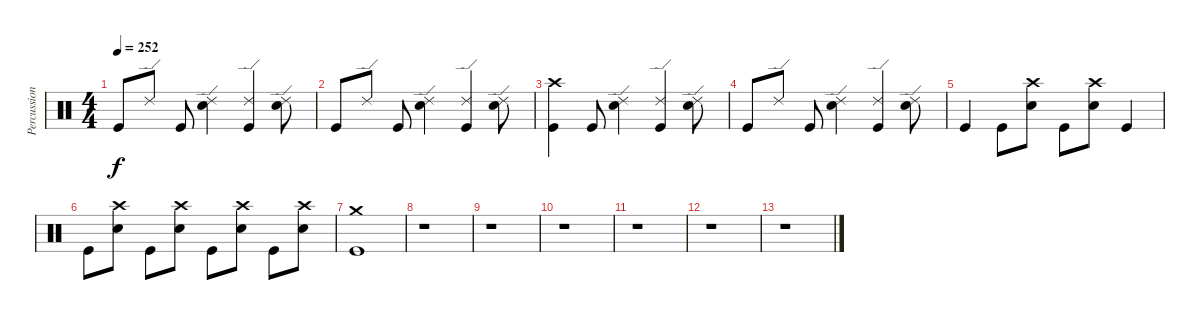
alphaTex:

\track ("Percussion" "Percussion") {instrument percussion}
\staff {score}
\articulation defaults
\ts (4 4)
\tempo 252
\clef neutral
\ks c "Kick (hit)".8{dy f} "Ride (edge) 2".8 "Kick (hit)".8
("Ride (edge) 2" "Electric Snare (hit)").4 ("Ride (edge) 2" "Kick (hit)").4 ("Ride (edge) 2" "Electric Snare (hit)").8 |
"Kick (hit)".8 "Ride (edge) 2".8 "Kick (hit)".8 ("Ride (edge) 2" "Electric Snare (hit)").4 ("Ride (edge) 2" "Kick (hit)").4 ("Ride (edge) 2" "Electric Snare (hit)").8 |
("Crash high (hit)" "Kick (hit)").4 "Kick (hit)".8 ("Ride (edge) 2" "Electric Snare (hit)").4 ("Ride (edge) 2" "Kick (hit)").4 ("Ride (edge) 2" "Electric Snare (hit)").8 |
"Kick (hit)".8 "Ride (edge) 2".8 "Kick (hit)".8 ("Ride (edge) 2" "Electric Snare (hit)").4 ("Ride (edge) 2" "Kick (hit)").4 ("Ride (edge) 2" "Electric Snare (hit)").8 |
"Kick (hit)".4 "Kick (hit)".8 ("Crash high (hit)" "Electric Snare (hit)").8 "Kick (hit)".8 ("Crash high (hit)" "Electric Snare (hit)").8 "Kick (hit)".4 |
"Kick (hit)".8 ("Crash high (hit)" "Electric Snare (hit)").8 "Kick (hit)".8 ("Crash high (hit)" "Electric Snare (hit)").8 "Kick (hit)".8 ("Crash high (hit)" "Electric Snare (hit)").8 "Kick (hit)".8 ("Crash high (hit)" "Electric Snare (hit)").8 |
("Crash medium (hit)" "Kick (hit)").1 |
r.1 |
r.1 |
r.1 |
r.1 |
r.1 |
r.1
